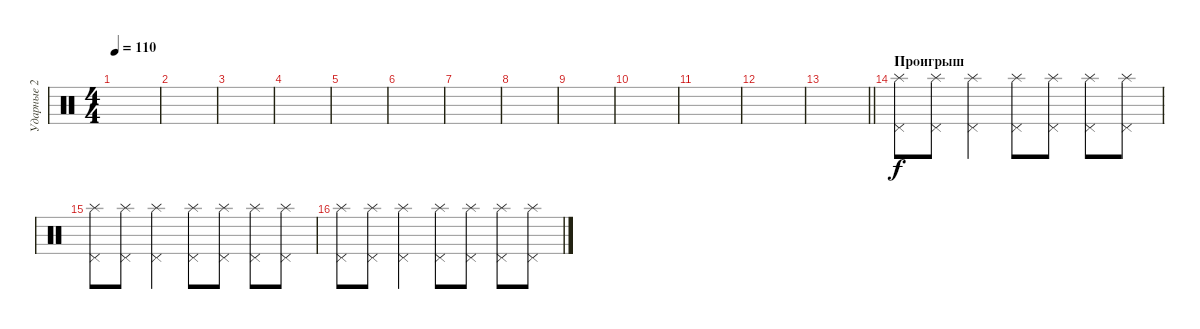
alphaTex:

\track ("Ударные 2" "Ударные 2") {instrument percussion}
\staff {score}
\articulation defaults
\ts (4 4)
\tempo 110
\clef neutral
\ks c
|
|
|
|
|
|
|
|
|
|
|
|
\barLineRight lightlight
|
\section ("" "Проигрыш")
("Pedal Hi-Hat (hit)" "Splash (hit)").8 ("Pedal Hi-Hat (hit)" "Splash (hit)").8 ("Pedal Hi-Hat (hit)" "Splash (hit)").4 ("Pedal Hi-Hat (hit)" "Splash (hit)").8 ("Pedal Hi-Hat (hit)" "Splash (hit)").8 ("Pedal Hi-Hat (hit)" "Splash (hit)").8 ("Pedal Hi-Hat (hit)" "Splash (hit)").8 |
("Pedal Hi-Hat (hit)" "Splash (hit)").8 ("Pedal Hi-Hat (hit)" "Splash (hit)").8 ("Pedal Hi-Hat (hit)" "Splash (hit)").4 ("Pedal Hi-Hat (hit)" "Splash (hit)").8 ("Pedal Hi-Hat (hit)" "Splash (hit)").8 ("Pedal Hi-Hat (hit)" "Splash (hit)").8 ("Pedal Hi-Hat (hit)" "Splash (hit)").8 |
("Pedal Hi-Hat (hit)" "Splash (hit)").8 ("Pedal Hi-Hat (hit)" "Splash (hit)").8 ("Pedal Hi-Hat (hit)" "Splash (hit)").4 ("Pedal Hi-Hat (hit)" "Splash (hit)").8 ("Pedal Hi-Hat (hit)" "Splash (hit)").8 ("Pedal Hi-Hat (hit)" "Splash (hit)").8 ("Pedal Hi-Hat (hit)" "Splash (hit)").8
